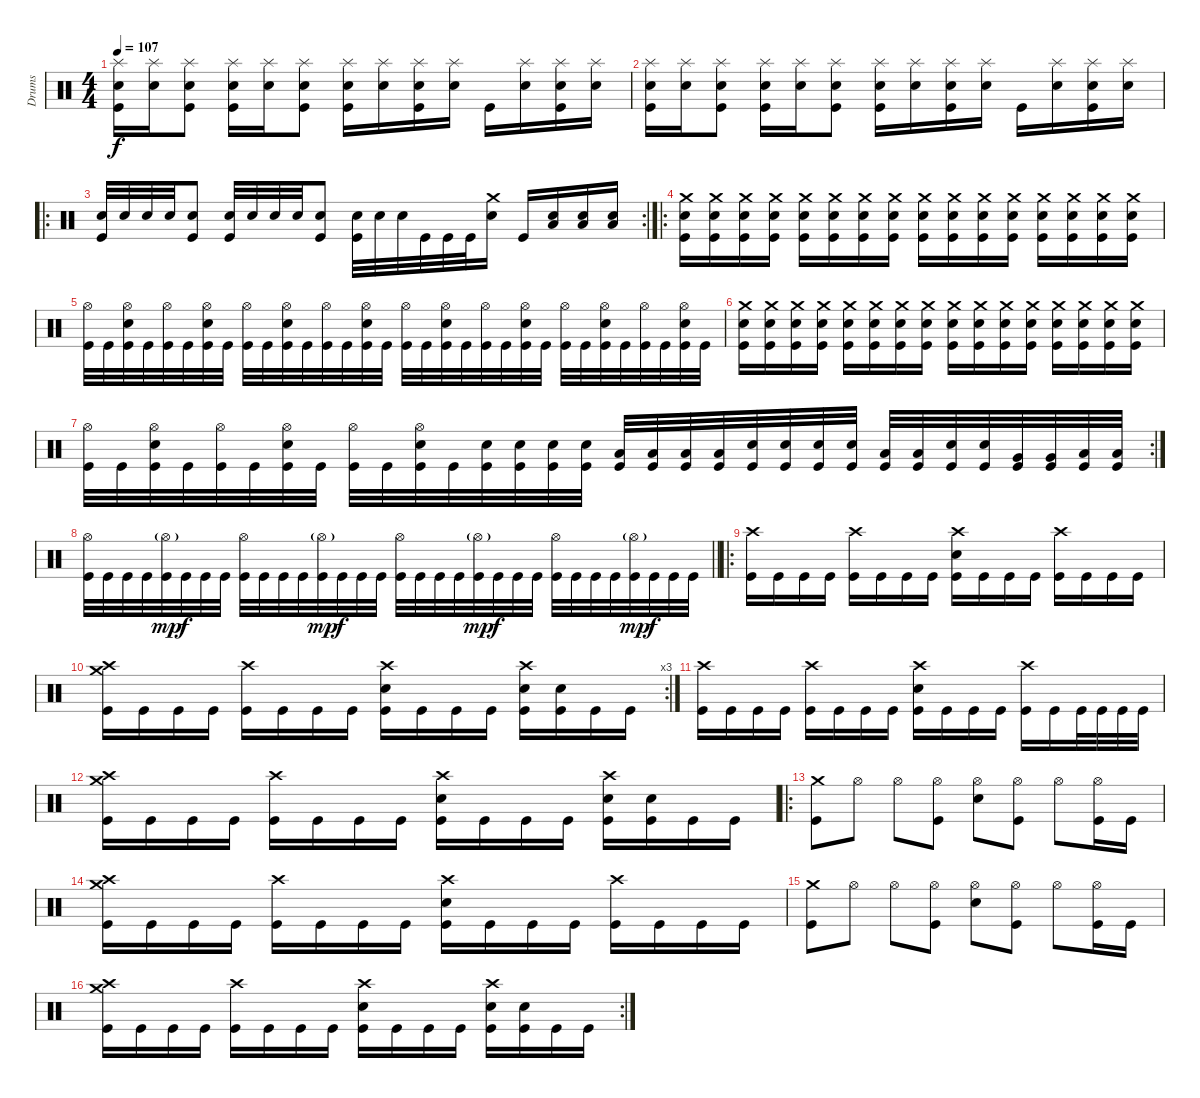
\track ("Drums" "Drums") {instrument percussion}
\staff {score}
\articulation defaults
\ts (4 4)
\tempo 107
\clef neutral
\ks c
("Electric Snare (hit)" "Splash (hit)" "Kick (hit)").16{dy f} ("Electric Snare (hit)" "Splash (hit)").16 ("Electric Snare (hit)" "Splash (hit)" "Kick (hit)").8 ("Splash (hit)" "Electric Snare (hit)" "Kick (hit)").16 ("Splash (hit)" "Electric Snare (hit)").16 ("Splash (hit)" "Electric Snare (hit)" "Kick (hit)").8 ("Splash (hit)" "Electric Snare (hit)" "Kick (hit)").16 ("Splash (hit)" "Electric Snare (hit)").16 ("Splash (hit)" "Electric Snare (hit)" "Kick (hit)").16 ("Splash (hit)" "Electric Snare (hit)").16 "Kick (hit)".16 ("Splash (hit)" "Electric Snare (hit)").16 ("Splash (hit)" "Electric Snare (hit)" "Kick (hit)").16 ("Splash (hit)" "Electric Snare (hit)").16 |
("Electric Snare (hit)" "Splash (hit)" "Kick (hit)").16 ("Electric Snare (hit)" "Splash (hit)").16 ("Electric Snare (hit)" "Splash (hit)" "Kick (hit)").8 ("Splash (hit)" "Electric Snare (hit)" "Kick (hit)").16 ("Splash (hit)" "Electric Snare (hit)").16 ("Splash (hit)" "Electric Snare (hit)" "Kick (hit)").8 ("Splash (hit)" "Electric Snare (hit)" "Kick (hit)").16 ("Splash (hit)" "Electric Snare (hit)").16 ("Splash (hit)" "Electric Snare (hit)" "Kick (hit)").16 ("Splash (hit)" "Electric Snare (hit)").16 "Kick (hit)".16 ("Splash (hit)" "Electric Snare (hit)").16 ("Splash (hit)" "Electric Snare (hit)" "Kick (hit)").16 ("Splash (hit)" "Electric Snare (hit)").16 |
\ro
\rc 2
("Electric Snare (hit)" "Kick (hit)").32 "Electric Snare (hit)".32 "Electric Snare (hit)".32 "Electric Snare (hit)".32 ("Electric Snare (hit)" "Kick (hit)").8 ("Electric Snare (hit)" "Kick (hit)").32 "Electric Snare (hit)".32 "Electric Snare (hit)".32 "Electric Snare (hit)".32 ("Electric Snare (hit)" "Kick (hit)").8 ("Electric Snare (hit)" "Kick (hit)").32 "Electric Snare (hit)".32 "Electric Snare (hit)".32 "Kick (hit)".32 "Kick (hit)".32 "Kick (hit)".32 ("Crash medium (hit)" "Electric Snare (hit)").16 "Kick (hit)".16 ("Electric Snare (hit)" "Low Floor Tom (hit)").16 ("Electric Snare (hit)" "Low Floor Tom (hit)").16 ("Electric Snare (hit)" "Low Floor Tom (hit)").16 |
\ro
("Crash medium (hit)" "Electric Snare (hit)" "Kick (hit)").16 ("Crash medium (hit)" "Electric Snare (hit)" "Kick (hit)").16 ("Crash medium (hit)" "Electric Snare (hit)" "Kick (hit)").16 ("Crash medium (hit)" "Electric Snare (hit)" "Kick (hit)").16 ("Crash medium (hit)" "Electric Snare (hit)" "Kick (hit)").16 ("Crash medium (hit)" "Electric Snare (hit)" "Kick (hit)").16 ("Crash medium (hit)" "Electric Snare (hit)" "Kick (hit)").16 ("Crash medium (hit)" "Electric Snare (hit)" "Kick (hit)").16 ("Crash medium (hit)" "Electric Snare (hit)" "Kick (hit)").16 ("Crash medium (hit)" "Electric Snare (hit)" "Kick (hit)").16 ("Crash medium (hit)" "Electric Snare (hit)" "Kick (hit)").16 ("Crash medium (hit)" "Electric Snare (hit)" "Kick (hit)").16 ("Crash medium (hit)" "Electric Snare (hit)" "Kick (hit)").16 ("Crash medium (hit)" "Electric Snare (hit)" "Kick (hit)").16 ("Crash medium (hit)" "Electric Snare (hit)" "Kick (hit)").16 ("Crash medium (hit)" "Electric Snare (hit)" "Kick (hit)").16 |
("Hi-Hat (open)" "Kick (hit)").32 "Kick (hit)".32 ("Hi-Hat (open)" "Electric Snare (hit)" "Kick (hit)").32 "Kick (hit)".32 ("Hi-Hat (open)" "Kick (hit)").32 "Kick (hit)".32 ("Hi-Hat (open)" "Electric Snare (hit)" "Kick (hit)").32 "Kick (hit)".32 ("Hi-Hat (open)" "Kick (hit)").32 "Kick (hit)".32 ("Hi-Hat (open)" "Electric Snare (hit)" "Kick (hit)").32 "Kick (hit)".32 ("Hi-Hat (open)" "Kick (hit)").32 "Kick (hit)".32 ("Hi-Hat (open)" "Electric Snare (hit)" "Kick (hit)").32 "Kick (hit)".32 ("Hi-Hat (open)" "Kick (hit)").32 "Kick (hit)".32 ("Hi-Hat (open)" "Electric Snare (hit)" "Kick (hit)").32 "Kick (hit)".32 ("Hi-Hat (open)" "Kick (hit)").32 "Kick (hit)".32 ("Hi-Hat (open)" "Electric Snare (hit)" "Kick (hit)").32 "Kick (hit)".32 ("Hi-Hat (open)" "Kick (hit)").32 "Kick (hit)".32 ("Hi-Hat (open)" "Electric Snare (hit)" "Kick (hit)").32 "Kick (hit)".32 ("Hi-Hat (open)" "Kick (hit)").32 "Kick (hit)".32 ("Hi-Hat (open)" "Electric Snare (hit)" "Kick (hit)").32 "Kick (hit)".32 |
("Crash medium (hit)" "Electric Snare (hit)" "Kick (hit)").16 ("Crash medium (hit)" "Electric Snare (hit)" "Kick (hit)").16 ("Crash medium (hit)" "Electric Snare (hit)" "Kick (hit)").16 ("Crash medium (hit)" "Electric Snare (hit)" "Kick (hit)").16 ("Crash medium (hit)" "Electric Snare (hit)" "Kick (hit)").16 ("Crash medium (hit)" "Electric Snare (hit)" "Kick (hit)").16 ("Crash medium (hit)" "Electric Snare (hit)" "Kick (hit)").16 ("Crash medium (hit)" "Electric Snare (hit)" "Kick (hit)").16 ("Crash medium (hit)" "Electric Snare (hit)" "Kick (hit)").16 ("Crash medium (hit)" "Electric Snare (hit)" "Kick (hit)").16 ("Crash medium (hit)" "Electric Snare (hit)" "Kick (hit)").16 ("Crash medium (hit)" "Electric Snare (hit)" "Kick (hit)").16 ("Crash medium (hit)" "Electric Snare (hit)" "Kick (hit)").16 ("Crash medium (hit)" "Electric Snare (hit)" "Kick (hit)").16 ("Crash medium (hit)" "Electric Snare (hit)" "Kick (hit)").16 ("Crash medium (hit)" "Electric Snare (hit)" "Kick (hit)").16 |
\rc 2
("Hi-Hat (open)" "Kick (hit)").32 "Kick (hit)".32 ("Hi-Hat (open)" "Electric Snare (hit)" "Kick (hit)").32 "Kick (hit)".32 ("Hi-Hat (open)" "Kick (hit)").32 "Kick (hit)".32 ("Hi-Hat (open)" "Electric Snare (hit)" "Kick (hit)").32 "Kick (hit)".32 ("Hi-Hat (open)" "Kick (hit)").32 "Kick (hit)".32 ("Hi-Hat (open)" "Electric Snare (hit)" "Kick (hit)").32 "Kick (hit)".32 ("Electric Snare (hit)" "Kick (hit)").32 ("Electric Snare (hit)" "Kick (hit)").32 ("Electric Snare (hit)" "Kick (hit)").32 ("Electric Snare (hit)" "Kick (hit)").32 ("Low Tom (hit)" "Kick (hit)").32 ("Low Tom (hit)" "Kick (hit)").32 ("Low Tom (hit)" "Kick (hit)").32 ("Low Tom (hit)" "Kick (hit)").32 ("Electric Snare (hit)" "Kick (hit)").32 ("Electric Snare (hit)" "Kick (hit)").32 ("Electric Snare (hit)" "Kick (hit)").32 ("Electric Snare (hit)" "Kick (hit)").32 ("Low Tom (hit)" "Kick (hit)").32 ("Low Tom (hit)" "Kick (hit)").32 ("Electric Snare (hit)" "Kick (hit)").32 ("Electric Snare (hit)" "Kick (hit)").32 ("Very Low Tom (hit)" "Kick (hit)").32 ("Very Low Tom (hit)" "Kick (hit)").32 ("Low Floor Tom (hit)" "Kick (hit)").32 ("Low Floor Tom (hit)" "Kick (hit)").32 |
\barLineRight lightlight
("Hi-Hat (open)" "Kick (hit)").32 "Kick (hit)".32 "Kick (hit)".32 "Kick (hit)".32 ("Hi-Hat (open)"{g} "Kick (hit)").32{dy mp} "Kick (hit)".32{dy f} "Kick (hit)".32 "Kick (hit)".32 ("Hi-Hat (open)" "Kick (hit)").32 "Kick (hit)".32 "Kick (hit)".32 "Kick (hit)".32 ("Hi-Hat (open)"{g} "Kick (hit)").32{dy mp} "Kick (hit)".32{dy f} "Kick (hit)".32 "Kick (hit)".32 ("Hi-Hat (open)" "Kick (hit)").32 "Kick (hit)".32 "Kick (hit)".32 "Kick (hit)".32 ("Hi-Hat (open)"{g} "Kick (hit)").32{dy mp} "Kick (hit)".32{dy f} "Kick (hit)".32 "Kick (hit)".32 ("Hi-Hat (open)" "Kick (hit)").32 "Kick (hit)".32 "Kick (hit)".32 "Kick (hit)".32 ("Hi-Hat (open)"{g} "Kick (hit)").32{dy mp} "Kick (hit)".32{dy f} "Kick (hit)".32 "Kick (hit)".32 |
\ro
("Crash high (hit)" "Kick (hit)").16 "Kick (hit)".16 "Kick (hit)".16 "Kick (hit)".16 ("Crash high (hit)" "Kick (hit)").16 "Kick (hit)".16 "Kick (hit)".16 "Kick (hit)".16 ("Crash high (hit)" "Electric Snare (hit)" "Kick (hit)").16 "Kick (hit)".16 "Kick (hit)".16 "Kick (hit)".16 ("Crash high (hit)" "Kick (hit)").16 "Kick (hit)".16 "Kick (hit)".16 "Kick (hit)".16 |
\rc 3
("Crash high (hit)" "Crash medium (hit)" "Kick (hit)").16 "Kick (hit)".16 "Kick (hit)".16 "Kick (hit)".16 ("Crash high (hit)" "Kick (hit)").16 "Kick (hit)".16 "Kick (hit)".16 "Kick (hit)".16 ("Crash high (hit)" "Electric Snare (hit)" "Kick (hit)").16 "Kick (hit)".16 "Kick (hit)".16 "Kick (hit)".16 ("Crash high (hit)" "Electric Snare (hit)" "Kick (hit)").16 ("Electric Snare (hit)" "Kick (hit)").16 "Kick (hit)".16 "Kick (hit)".16 |
("Crash high (hit)" "Kick (hit)").16 "Kick (hit)".16 "Kick (hit)".16 "Kick (hit)".16 ("Crash high (hit)" "Kick (hit)").16 "Kick (hit)".16 "Kick (hit)".16 "Kick (hit)".16 ("Crash high (hit)" "Electric Snare (hit)" "Kick (hit)").16 "Kick (hit)".16 "Kick (hit)".16 "Kick (hit)".16 ("Crash high (hit)" "Kick (hit)").16 "Kick (hit)".16 "Kick (hit)".32 "Kick (hit)".32 "Kick (hit)".32 "Kick (hit)".32 |
("Crash high (hit)" "Crash medium (hit)" "Kick (hit)").16 "Kick (hit)".16 "Kick (hit)".16 "Kick (hit)".16 ("Crash high (hit)" "Kick (hit)").16 "Kick (hit)".16 "Kick (hit)".16 "Kick (hit)".16 ("Crash high (hit)" "Electric Snare (hit)" "Kick (hit)").16 "Kick (hit)".16 "Kick (hit)".16 "Kick (hit)".16 ("Crash high (hit)" "Electric Snare (hit)" "Kick (hit)").16 ("Electric Snare (hit)" "Kick (hit)").16 "Kick (hit)".16 "Kick (hit)".16 |
\ro
("Crash medium (hit)" "Kick (hit)").8 "Hi-Hat (open)".8 "Hi-Hat (open)".8 ("Hi-Hat (open)" "Kick (hit)").8 ("Hi-Hat (open)" "Electric Snare (hit)").8 ("Hi-Hat (open)" "Kick (hit)").8 "Hi-Hat (open)".8 ("Hi-Hat (open)" "Kick (hit)").16 "Kick (hit)".16 |
("Crash high (hit)" "Crash medium (hit)" "Kick (hit)").16 "Kick (hit)".16 "Kick (hit)".16 "Kick (hit)".16 ("Crash high (hit)" "Kick (hit)").16 "Kick (hit)".16 "Kick (hit)".16 "Kick (hit)".16 ("Crash high (hit)" "Electric Snare (hit)" "Kick (hit)").16 "Kick (hit)".16 "Kick (hit)".16 "Kick (hit)".16 ("Crash high (hit)" "Kick (hit)").16 "Kick (hit)".16 "Kick (hit)".16 "Kick (hit)".16 |
("Crash medium (hit)" "Kick (hit)").8 "Hi-Hat (open)".8 "Hi-Hat (open)".8 ("Hi-Hat (open)" "Kick (hit)").8 ("Hi-Hat (open)" "Electric Snare (hit)").8 ("Hi-Hat (open)" "Kick (hit)").8 "Hi-Hat (open)".8 ("Hi-Hat (open)" "Kick (hit)").16 "Kick (hit)".16 |
\rc 2
("Crash high (hit)" "Crash medium (hit)" "Kick (hit)").16 "Kick (hit)".16 "Kick (hit)".16 "Kick (hit)".16 ("Crash high (hit)" "Kick (hit)").16 "Kick (hit)".16 "Kick (hit)".16 "Kick (hit)".16 ("Crash high (hit)" "Electric Snare (hit)" "Kick (hit)").16 "Kick (hit)".16 "Kick (hit)".16 "Kick (hit)".16 ("Crash high (hit)" "Electric Snare (hit)" "Kick (hit)").16 ("Electric Snare (hit)" "Kick (hit)").16 "Kick (hit)".16 "Kick (hit)".16
